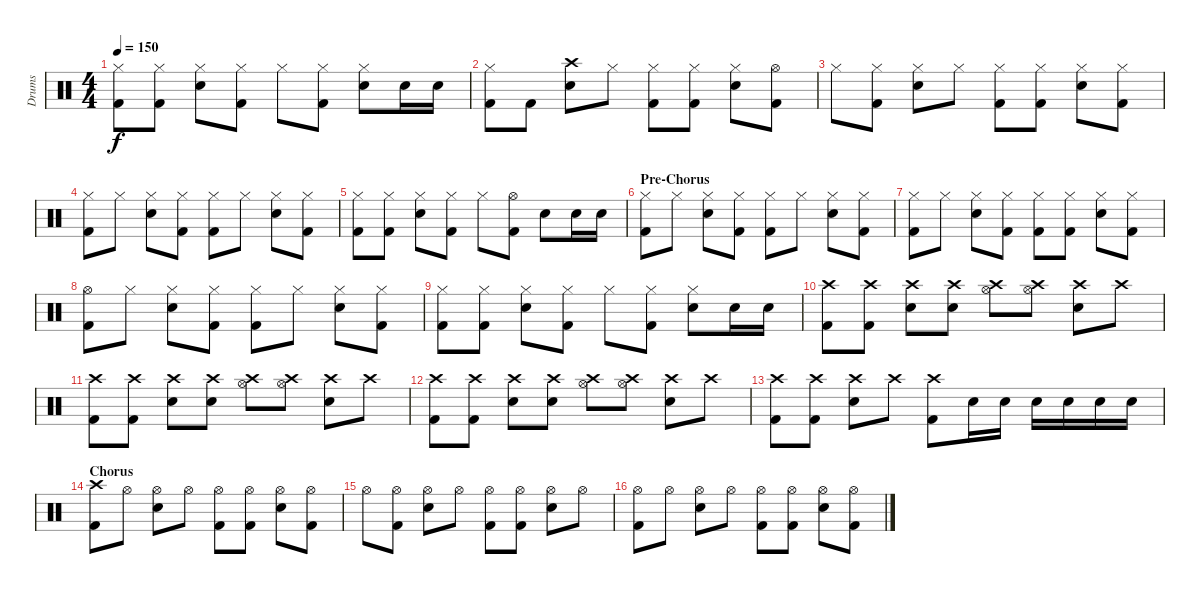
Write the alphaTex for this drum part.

\track ("Drums" "Drums") {instrument percussion}
\staff {score}
\articulation defaults
\ts (4 4)
\tempo 150
\clef neutral
\ks c
("Hi-Hat (closed)" "Kick (hit) 2").8{dy f} ("Hi-Hat (closed)" "Kick (hit) 2").8 ("Hi-Hat (closed)" "Electric Snare (hit)").8 ("Hi-Hat (closed)" "Kick (hit) 2").8 "Hi-Hat (closed)".8 ("Hi-Hat (closed)" "Kick (hit) 2").8 ("Hi-Hat (closed)" "Electric Snare (hit)").8 "Electric Snare (hit)".16 "Electric Snare (hit)".16 |
("Hi-Hat (closed)" "Kick (hit) 2").8 "Kick (hit) 2".8 ("Crash high (hit)" "Electric Snare (hit)").8 "Hi-Hat (closed)".8 ("Hi-Hat (closed)" "Kick (hit) 2").8 ("Hi-Hat (closed)" "Kick (hit) 2").8 ("Hi-Hat (closed)" "Electric Snare (hit)").8 ("Hi-Hat (open)" "Kick (hit) 2").8 |
"Hi-Hat (closed)".8 ("Hi-Hat (closed)" "Kick (hit) 2").8 ("Hi-Hat (closed)" "Electric Snare (hit)").8 "Hi-Hat (closed)".8 ("Hi-Hat (closed)" "Kick (hit) 2").8 ("Hi-Hat (closed)" "Kick (hit) 2").8 ("Hi-Hat (closed)" "Electric Snare (hit)").8 ("Hi-Hat (closed)" "Kick (hit) 2").8 |
("Hi-Hat (closed)" "Kick (hit) 2").8 "Hi-Hat (closed)".8 ("Hi-Hat (closed)" "Electric Snare (hit)").8 ("Hi-Hat (closed)" "Kick (hit) 2").8 ("Hi-Hat (closed)" "Kick (hit) 2").8 "Hi-Hat (closed)".8 ("Hi-Hat (closed)" "Electric Snare (hit)").8 ("Hi-Hat (closed)" "Kick (hit) 2").8 |
("Hi-Hat (closed)" "Kick (hit) 2").8 ("Hi-Hat (closed)" "Kick (hit) 2").8 ("Hi-Hat (closed)" "Electric Snare (hit)").8 ("Hi-Hat (closed)" "Kick (hit) 2").8 "Hi-Hat (closed)".8 ("Hi-Hat (open)" "Kick (hit) 2").8 "Electric Snare (hit)".8 "Electric Snare (hit)".16 "Electric Snare (hit)".16 |
\section ("" "Pre-Chorus")
("Hi-Hat (closed)" "Kick (hit) 2").8 "Hi-Hat (closed)".8 ("Hi-Hat (closed)" "Electric Snare (hit)").8 ("Hi-Hat (closed)" "Kick (hit) 2").8 ("Hi-Hat (closed)" "Kick (hit) 2").8 "Hi-Hat (closed)".8 ("Hi-Hat (closed)" "Electric Snare (hit)").8 ("Hi-Hat (closed)" "Kick (hit) 2").8 |
("Hi-Hat (closed)" "Kick (hit) 2").8 "Hi-Hat (closed)".8 ("Hi-Hat (closed)" "Electric Snare (hit)").8 ("Hi-Hat (closed)" "Kick (hit) 2").8 ("Hi-Hat (closed)" "Kick (hit) 2").8 ("Hi-Hat (closed)" "Kick (hit) 2").8 ("Hi-Hat (closed)" "Electric Snare (hit)").8 ("Hi-Hat (closed)" "Kick (hit) 2").8 |
("Hi-Hat (open)" "Kick (hit) 2").8 "Hi-Hat (closed)".8 ("Hi-Hat (closed)" "Electric Snare (hit)").8 ("Hi-Hat (closed)" "Kick (hit) 2").8 ("Hi-Hat (closed)" "Kick (hit) 2").8 "Hi-Hat (closed)".8 ("Hi-Hat (closed)" "Electric Snare (hit)").8 ("Hi-Hat (closed)" "Kick (hit) 2").8 |
("Hi-Hat (closed)" "Kick (hit) 2").8 ("Hi-Hat (closed)" "Kick (hit) 2").8 ("Hi-Hat (closed)" "Electric Snare (hit)").8 ("Hi-Hat (closed)" "Kick (hit) 2").8 "Hi-Hat (closed)".8 ("Hi-Hat (closed)" "Kick (hit) 2").8 ("Hi-Hat (closed)" "Electric Snare (hit)").8 "Electric Snare (hit)".16 "Electric Snare (hit)".16 |
("Crash high (hit)" "Kick (hit) 2").8 ("Crash high (hit)" "Kick (hit) 2").8 ("Crash high (hit)" "Electric Snare (hit)").8 ("Crash high (hit)" "Electric Snare (hit)").8 ("Crash high (hit)" "Hi-Hat (open)").8 ("Crash high (hit)" "Hi-Hat (open)").8 ("Crash high (hit)" "Electric Snare (hit)").8 "Crash high (hit)".8 |
("Crash high (hit)" "Kick (hit) 2").8 ("Crash high (hit)" "Kick (hit) 2").8 ("Crash high (hit)" "Electric Snare (hit)").8 ("Crash high (hit)" "Electric Snare (hit)").8 ("Crash high (hit)" "Hi-Hat (open)").8 ("Crash high (hit)" "Hi-Hat (open)").8 ("Crash high (hit)" "Electric Snare (hit)").8 "Crash high (hit)".8 |
("Crash high (hit)" "Kick (hit) 2").8 ("Crash high (hit)" "Kick (hit) 2").8 ("Crash high (hit)" "Electric Snare (hit)").8 ("Crash high (hit)" "Electric Snare (hit)").8 ("Crash high (hit)" "Hi-Hat (open)").8 ("Crash high (hit)" "Hi-Hat (open)").8 ("Crash high (hit)" "Electric Snare (hit)").8 "Crash high (hit)".8 |
("Crash high (hit)" "Kick (hit) 2").8 ("Crash high (hit)" "Kick (hit) 2").8 ("Crash high (hit)" "Electric Snare (hit)").8 "Crash high (hit)".8 ("Crash high (hit)" "Kick (hit) 2").8 "Electric Snare (hit)".16 "Electric Snare (hit)".16 "Electric Snare (hit)".16 "Electric Snare (hit)".16 "Electric Snare (hit)".16 "Electric Snare (hit)".16 |
\section ("" "Chorus")
("Crash high (hit)" "Kick (hit) 2").8 "Hi-Hat (open)".8 ("Hi-Hat (open)" "Electric Snare (hit)").8 "Hi-Hat (open)".8 ("Hi-Hat (open)" "Kick (hit) 2").8 ("Hi-Hat (open)" "Kick (hit) 2").8 ("Hi-Hat (open)" "Electric Snare (hit)").8 ("Hi-Hat (open)" "Kick (hit) 2").8 |
"Hi-Hat (open)".8 ("Hi-Hat (open)" "Kick (hit) 2").8 ("Hi-Hat (open)" "Electric Snare (hit)").8 "Hi-Hat (open)".8 ("Hi-Hat (open)" "Kick (hit) 2").8 ("Hi-Hat (open)" "Kick (hit) 2").8 ("Hi-Hat (open)" "Electric Snare (hit)").8 "Hi-Hat (open)".8 |
("Hi-Hat (open)" "Kick (hit) 2").8 "Hi-Hat (open)".8 ("Hi-Hat (open)" "Electric Snare (hit)").8 "Hi-Hat (open)".8 ("Hi-Hat (open)" "Kick (hit) 2").8 ("Hi-Hat (open)" "Kick (hit) 2").8 ("Hi-Hat (open)" "Electric Snare (hit)").8 ("Hi-Hat (open)" "Kick (hit) 2").8
